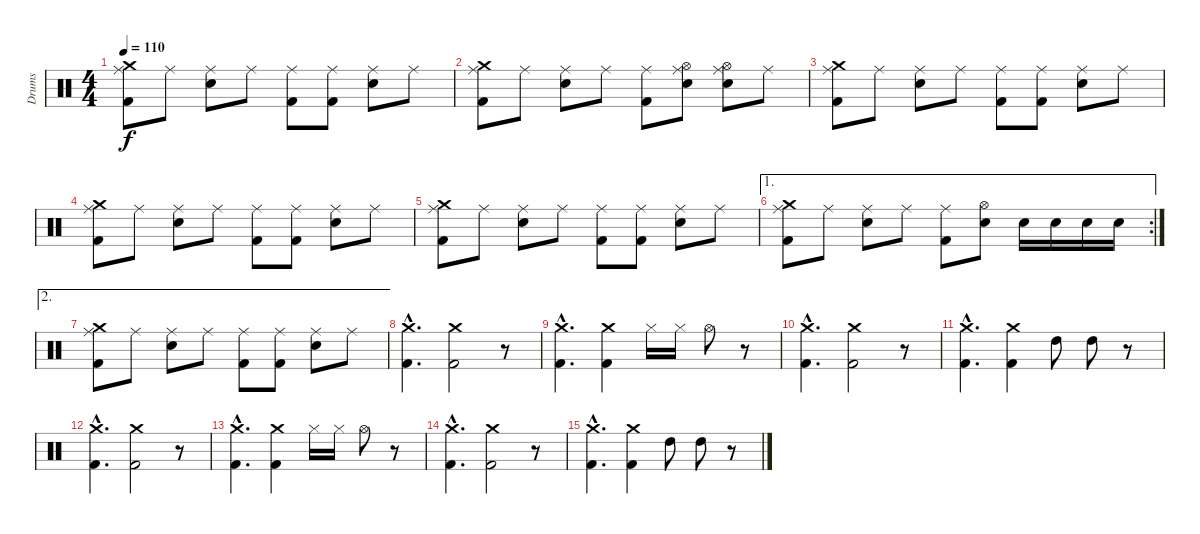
\track ("Drums" "Drums") {instrument percussion}
\staff {score}
\articulation defaults
\ts (4 4)
\tempo 110
\clef neutral
\ks aminor
("Crash medium (hit)" "Ride (middle)" "Kick (hit) 2").8{dy f} "Ride (middle)".8 ("Ride (middle)" "Electric Snare (hit)").8 "Ride (middle)".8 ("Ride (middle)" "Kick (hit) 2").8 ("Ride (middle)" "Kick (hit) 2").8 ("Ride (middle)" "Electric Snare (hit)").8 "Ride (middle)".8 |
("Crash medium (hit)" "Ride (middle)" "Kick (hit) 2").8 "Ride (middle)".8 ("Ride (middle)" "Electric Snare (hit)").8 "Ride (middle)".8 ("Ride (middle)" "Kick (hit) 2").8 ("Ride (middle)" "Hi-Hat (open)" "Electric Snare (hit)").8 ("Ride (middle)" "Hi-Hat (open)" "Electric Snare (hit)").8 "Ride (middle)".8 |
("Crash medium (hit)" "Ride (middle)" "Kick (hit) 2").8 "Ride (middle)".8 ("Ride (middle)" "Electric Snare (hit)").8 "Ride (middle)".8 ("Ride (middle)" "Kick (hit) 2").8 ("Ride (middle)" "Kick (hit) 2").8 ("Ride (middle)" "Electric Snare (hit)").8 "Ride (middle)".8 |
("Crash medium (hit)" "Ride (middle)" "Kick (hit) 2").8 "Ride (middle)".8 ("Ride (middle)" "Electric Snare (hit)").8 "Ride (middle)".8 ("Ride (middle)" "Kick (hit) 2").8 ("Ride (middle)" "Kick (hit) 2").8 ("Ride (middle)" "Electric Snare (hit)").8 "Ride (middle)".8 |
("Crash medium (hit)" "Ride (middle)" "Kick (hit) 2").8 "Ride (middle)".8 ("Ride (middle)" "Electric Snare (hit)").8 "Ride (middle)".8 ("Ride (middle)" "Kick (hit) 2").8 ("Ride (middle)" "Kick (hit) 2").8 ("Ride (middle)" "Electric Snare (hit)").8 "Ride (middle)".8 |
\ae 1
\rc 2
("Crash medium (hit)" "Ride (middle)" "Kick (hit) 2").8 "Ride (middle)".8 ("Ride (middle)" "Electric Snare (hit)").8 "Ride (middle)".8 ("Ride (middle)" "Kick (hit) 2").8 ("Hi-Hat (open)" "Electric Snare (hit)").8 "Electric Snare (hit)".16 "Electric Snare (hit)".16 "Electric Snare (hit)".16 "Electric Snare (hit)".16 |
\ae 2
("Crash medium (hit)" "Ride (middle)" "Kick (hit) 2").8 "Ride (middle)".8 ("Ride (middle)" "Electric Snare (hit)").8 "Ride (middle)".8 ("Ride (middle)" "Kick (hit) 2").8 ("Ride (middle)" "Kick (hit) 2").8 ("Ride (middle)" "Electric Snare (hit)").8 "Ride (middle)".8 |
("Crash medium (hit)"{hac} "Kick (hit) 2"{hac}).4{d} ("Crash medium (hit)" "Kick (hit) 2").2 r.8 |
("Crash medium (hit)"{hac} "Kick (hit) 2"{hac}).4{d} ("Crash medium (hit)" "Kick (hit) 2").4 "Hi-Hat (closed)".16 "Hi-Hat (closed)".16 "Hi-Hat (open)".8 r.8 |
("Crash medium (hit)"{hac} "Kick (hit) 2"{hac}).4{d} ("Crash medium (hit)" "Kick (hit) 2").2 r.8 |
("Crash medium (hit)"{hac} "Kick (hit) 2"{hac}).4{d} ("Crash medium (hit)" "Kick (hit) 2").4 "High Tom (hit)".8 "High Tom (hit)".8 r.8 |
("Crash medium (hit)"{hac} "Kick (hit) 2"{hac}).4{d} ("Crash medium (hit)" "Kick (hit) 2").2 r.8 |
("Crash medium (hit)"{hac} "Kick (hit) 2"{hac}).4{d} ("Crash medium (hit)" "Kick (hit) 2").4 "Hi-Hat (closed)".16 "Hi-Hat (closed)".16 "Hi-Hat (open)".8 r.8 |
("Crash medium (hit)"{hac} "Kick (hit) 2"{hac}).4{d} ("Crash medium (hit)" "Kick (hit) 2").2 r.8 |
("Crash medium (hit)"{hac} "Kick (hit) 2"{hac}).4{d} ("Crash medium (hit)" "Kick (hit) 2").4 "High Tom (hit)".8 "High Tom (hit)".8 r.8
